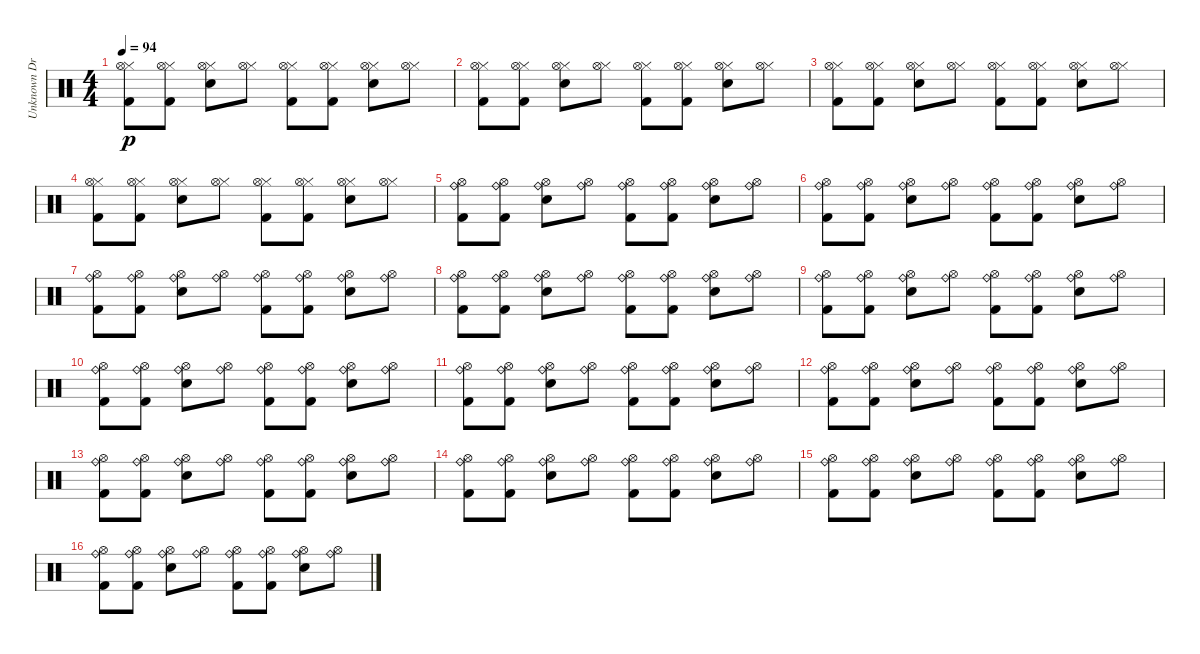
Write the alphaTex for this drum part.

\track ("Unknown Drum Player" "Unknown Dr") {instrument percussion}
\staff {score}
\articulation defaults
\ts (4 4)
\tempo 94
\clef neutral
\ks c
("Hi-Hat (closed)" "Hi-Hat (open)" "Kick (hit) 2").8{dy p} ("Hi-Hat (closed)" "Hi-Hat (open)" "Kick (hit) 2").8 ("Hi-Hat (closed)" "Hi-Hat (open)" "Electric Snare (hit)").8 ("Hi-Hat (closed)" "Hi-Hat (open)").8 ("Hi-Hat (closed)" "Hi-Hat (open)" "Kick (hit) 2").8 ("Hi-Hat (closed)" "Hi-Hat (open)" "Kick (hit) 2").8 ("Hi-Hat (closed)" "Hi-Hat (open)" "Electric Snare (hit)").8 ("Hi-Hat (closed)" "Hi-Hat (open)").8 |
("Hi-Hat (closed)" "Hi-Hat (open)" "Kick (hit) 2").8 ("Hi-Hat (closed)" "Hi-Hat (open)" "Kick (hit) 2").8 ("Hi-Hat (closed)" "Hi-Hat (open)" "Electric Snare (hit)").8 ("Hi-Hat (closed)" "Hi-Hat (open)").8 ("Hi-Hat (closed)" "Hi-Hat (open)" "Kick (hit) 2").8 ("Hi-Hat (closed)" "Hi-Hat (open)" "Kick (hit) 2").8 ("Hi-Hat (closed)" "Hi-Hat (open)" "Electric Snare (hit)").8 ("Hi-Hat (closed)" "Hi-Hat (open)").8 |
("Hi-Hat (closed)" "Hi-Hat (open)" "Kick (hit) 2").8 ("Hi-Hat (closed)" "Hi-Hat (open)" "Kick (hit) 2").8 ("Hi-Hat (closed)" "Hi-Hat (open)" "Electric Snare (hit)").8 ("Hi-Hat (closed)" "Hi-Hat (open)").8 ("Hi-Hat (closed)" "Hi-Hat (open)" "Kick (hit) 2").8 ("Hi-Hat (closed)" "Hi-Hat (open)" "Kick (hit) 2").8 ("Hi-Hat (closed)" "Hi-Hat (open)" "Electric Snare (hit)").8 ("Hi-Hat (closed)" "Hi-Hat (open)").8 |
("Hi-Hat (closed)" "Hi-Hat (open)" "Kick (hit) 2").8 ("Hi-Hat (closed)" "Hi-Hat (open)" "Kick (hit) 2").8 ("Hi-Hat (closed)" "Hi-Hat (open)" "Electric Snare (hit)").8 ("Hi-Hat (closed)" "Hi-Hat (open)").8 ("Hi-Hat (closed)" "Hi-Hat (open)" "Kick (hit) 2").8 ("Hi-Hat (closed)" "Hi-Hat (open)" "Kick (hit) 2").8 ("Hi-Hat (closed)" "Hi-Hat (open)" "Electric Snare (hit)").8 ("Hi-Hat (closed)" "Hi-Hat (open)").8 |
("Ride (bell)" "Hi-Hat (open)" "Kick (hit) 2").8 ("Ride (bell)" "Hi-Hat (open)" "Kick (hit) 2").8 ("Ride (bell)" "Hi-Hat (open)" "Electric Snare (hit)").8 ("Ride (bell)" "Hi-Hat (open)").8 ("Ride (bell)" "Hi-Hat (open)" "Kick (hit) 2").8 ("Ride (bell)" "Hi-Hat (open)" "Kick (hit) 2").8 ("Ride (bell)" "Hi-Hat (open)" "Electric Snare (hit)").8 ("Ride (bell)" "Hi-Hat (open)").8 |
("Ride (bell)" "Hi-Hat (open)" "Kick (hit) 2").8 ("Ride (bell)" "Hi-Hat (open)" "Kick (hit) 2").8 ("Ride (bell)" "Hi-Hat (open)" "Electric Snare (hit)").8 ("Ride (bell)" "Hi-Hat (open)").8 ("Ride (bell)" "Hi-Hat (open)" "Kick (hit) 2").8 ("Ride (bell)" "Hi-Hat (open)" "Kick (hit) 2").8 ("Ride (bell)" "Hi-Hat (open)" "Electric Snare (hit)").8 ("Ride (bell)" "Hi-Hat (open)").8 |
("Ride (bell)" "Hi-Hat (open)" "Kick (hit) 2").8 ("Ride (bell)" "Hi-Hat (open)" "Kick (hit) 2").8 ("Ride (bell)" "Hi-Hat (open)" "Electric Snare (hit)").8 ("Ride (bell)" "Hi-Hat (open)").8 ("Ride (bell)" "Hi-Hat (open)" "Kick (hit) 2").8 ("Ride (bell)" "Hi-Hat (open)" "Kick (hit) 2").8 ("Ride (bell)" "Hi-Hat (open)" "Electric Snare (hit)").8 ("Ride (bell)" "Hi-Hat (open)").8 |
("Ride (bell)" "Hi-Hat (open)" "Kick (hit) 2").8 ("Ride (bell)" "Hi-Hat (open)" "Kick (hit) 2").8 ("Ride (bell)" "Hi-Hat (open)" "Electric Snare (hit)").8 ("Ride (bell)" "Hi-Hat (open)").8 ("Ride (bell)" "Hi-Hat (open)" "Kick (hit) 2").8 ("Ride (bell)" "Hi-Hat (open)" "Kick (hit) 2").8 ("Ride (bell)" "Hi-Hat (open)" "Electric Snare (hit)").8 ("Ride (bell)" "Hi-Hat (open)").8 |
("Ride (bell)" "Hi-Hat (open)" "Kick (hit) 2").8 ("Ride (bell)" "Hi-Hat (open)" "Kick (hit) 2").8 ("Ride (bell)" "Hi-Hat (open)" "Electric Snare (hit)").8 ("Ride (bell)" "Hi-Hat (open)").8 ("Ride (bell)" "Hi-Hat (open)" "Kick (hit) 2").8 ("Ride (bell)" "Hi-Hat (open)" "Kick (hit) 2").8 ("Ride (bell)" "Hi-Hat (open)" "Electric Snare (hit)").8 ("Ride (bell)" "Hi-Hat (open)").8 |
("Ride (bell)" "Hi-Hat (open)" "Kick (hit) 2").8 ("Ride (bell)" "Hi-Hat (open)" "Kick (hit) 2").8 ("Ride (bell)" "Hi-Hat (open)" "Electric Snare (hit)").8 ("Ride (bell)" "Hi-Hat (open)").8 ("Ride (bell)" "Hi-Hat (open)" "Kick (hit) 2").8 ("Ride (bell)" "Hi-Hat (open)" "Kick (hit) 2").8 ("Ride (bell)" "Hi-Hat (open)" "Electric Snare (hit)").8 ("Ride (bell)" "Hi-Hat (open)").8 |
("Ride (bell)" "Hi-Hat (open)" "Kick (hit) 2").8 ("Ride (bell)" "Hi-Hat (open)" "Kick (hit) 2").8 ("Ride (bell)" "Hi-Hat (open)" "Electric Snare (hit)").8 ("Ride (bell)" "Hi-Hat (open)").8 ("Ride (bell)" "Hi-Hat (open)" "Kick (hit) 2").8 ("Ride (bell)" "Hi-Hat (open)" "Kick (hit) 2").8 ("Ride (bell)" "Hi-Hat (open)" "Electric Snare (hit)").8 ("Ride (bell)" "Hi-Hat (open)").8 |
("Ride (bell)" "Hi-Hat (open)" "Kick (hit) 2").8 ("Ride (bell)" "Hi-Hat (open)" "Kick (hit) 2").8 ("Ride (bell)" "Hi-Hat (open)" "Electric Snare (hit)").8 ("Ride (bell)" "Hi-Hat (open)").8 ("Ride (bell)" "Hi-Hat (open)" "Kick (hit) 2").8 ("Ride (bell)" "Hi-Hat (open)" "Kick (hit) 2").8 ("Ride (bell)" "Hi-Hat (open)" "Electric Snare (hit)").8 ("Ride (bell)" "Hi-Hat (open)").8 |
("Ride (bell)" "Hi-Hat (open)" "Kick (hit) 2").8 ("Ride (bell)" "Hi-Hat (open)" "Kick (hit) 2").8 ("Ride (bell)" "Hi-Hat (open)" "Electric Snare (hit)").8 ("Ride (bell)" "Hi-Hat (open)").8 ("Ride (bell)" "Hi-Hat (open)" "Kick (hit) 2").8 ("Ride (bell)" "Hi-Hat (open)" "Kick (hit) 2").8 ("Ride (bell)" "Hi-Hat (open)" "Electric Snare (hit)").8 ("Ride (bell)" "Hi-Hat (open)").8 |
("Ride (bell)" "Hi-Hat (open)" "Kick (hit) 2").8 ("Ride (bell)" "Hi-Hat (open)" "Kick (hit) 2").8 ("Ride (bell)" "Hi-Hat (open)" "Electric Snare (hit)").8 ("Ride (bell)" "Hi-Hat (open)").8 ("Ride (bell)" "Hi-Hat (open)" "Kick (hit) 2").8 ("Ride (bell)" "Hi-Hat (open)" "Kick (hit) 2").8 ("Ride (bell)" "Hi-Hat (open)" "Electric Snare (hit)").8 ("Ride (bell)" "Hi-Hat (open)").8 |
("Ride (bell)" "Hi-Hat (open)" "Kick (hit) 2").8 ("Ride (bell)" "Hi-Hat (open)" "Kick (hit) 2").8 ("Ride (bell)" "Hi-Hat (open)" "Electric Snare (hit)").8 ("Ride (bell)" "Hi-Hat (open)").8 ("Ride (bell)" "Hi-Hat (open)" "Kick (hit) 2").8 ("Ride (bell)" "Hi-Hat (open)" "Kick (hit) 2").8 ("Ride (bell)" "Hi-Hat (open)" "Electric Snare (hit)").8 ("Ride (bell)" "Hi-Hat (open)").8 |
("Ride (bell)" "Hi-Hat (open)" "Kick (hit) 2").8 ("Ride (bell)" "Hi-Hat (open)" "Kick (hit) 2").8 ("Ride (bell)" "Hi-Hat (open)" "Electric Snare (hit)").8 ("Ride (bell)" "Hi-Hat (open)").8 ("Ride (bell)" "Hi-Hat (open)" "Kick (hit) 2").8 ("Ride (bell)" "Hi-Hat (open)" "Kick (hit) 2").8 ("Ride (bell)" "Hi-Hat (open)" "Electric Snare (hit)").8 ("Ride (bell)" "Hi-Hat (open)").8
